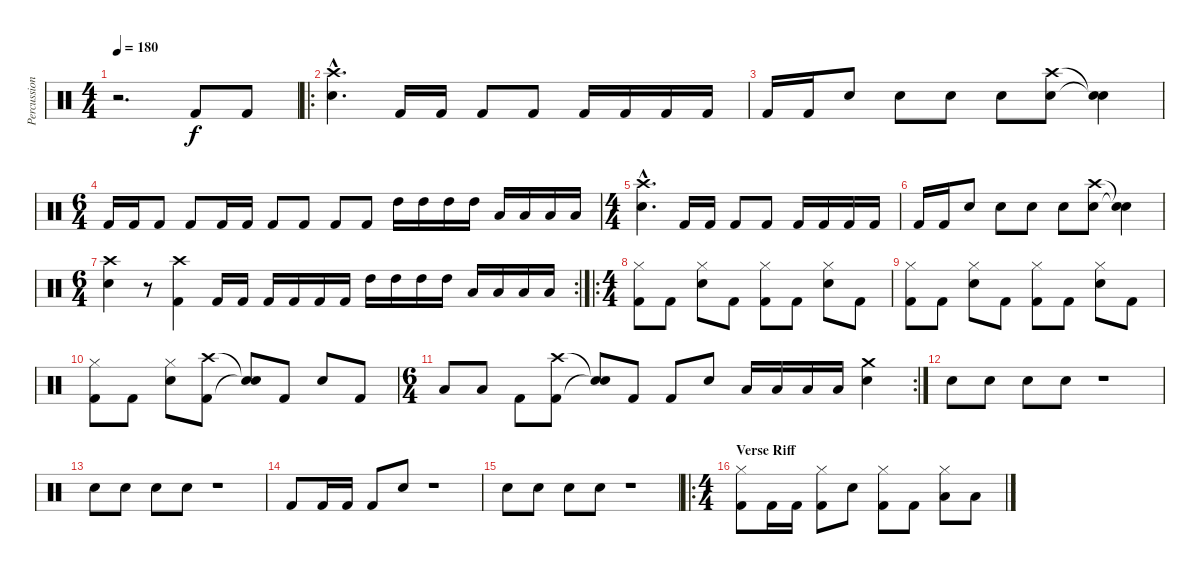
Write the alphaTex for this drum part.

\track ("Percussion" "Percussion") {instrument percussion}
\staff {score}
\articulation defaults
\ts (4 4)
\tempo 180
\clef neutral
\ks c
r.2{d dy f} "Kick (hit) 2".8 "Kick (hit) 2".8 |
\ro
("Crash high (hit)"{hac} "Snare (hit) 2"{hac}).4{d} "Kick (hit) 2".16 "Kick (hit) 2".16 "Kick (hit) 2".8 "Kick (hit) 2".8 "Kick (hit) 2".16 "Kick (hit) 2".16 "Kick (hit) 2".16 "Kick (hit) 2".16 |
"Kick (hit) 2".16 "Kick (hit) 2".16 "Snare (hit) 2".8 "Snare (hit) 2".8 "Snare (hit) 2".8 "Snare (hit) 2".8 ("Crash high (hit)" "Snare (hit) 2").8 ("Snare (hit)"{t} "Snare (hit)"{t}).4 |
\ts (6 4)
"Kick (hit) 2".16 "Kick (hit) 2".16 "Kick (hit) 2".8 "Kick (hit) 2".8 "Kick (hit) 2".16 "Kick (hit) 2".16 "Kick (hit) 2".8 "Kick (hit) 2".8 "Kick (hit) 2".8 "Kick (hit) 2".8 "High Tom (hit)".16 "High Tom (hit)".16 "High Tom (hit)".16 "High Tom (hit)".16 "Low Tom (hit)".16 "Low Tom (hit)".16 "Low Tom (hit)".16 "Low Tom (hit)".16 |
\ts (4 4)
("Crash high (hit)"{hac} "Snare (hit) 2"{hac}).4{d} "Kick (hit) 2".16 "Kick (hit) 2".16 "Kick (hit) 2".8 "Kick (hit) 2".8 "Kick (hit) 2".16 "Kick (hit) 2".16 "Kick (hit) 2".16 "Kick (hit) 2".16 |
"Kick (hit) 2".16 "Kick (hit) 2".16 "Snare (hit) 2".8 "Snare (hit) 2".8 "Snare (hit) 2".8 "Snare (hit) 2".8 ("Crash high (hit)" "Snare (hit) 2").8 ("Snare (hit)"{t} "Snare (hit)"{t}).4 |
\rc 2
\ts (6 4)
("Crash high (hit)" "Snare (hit) 2").4 r.8 ("Crash high (hit)" "Kick (hit) 2").4 "Kick (hit) 2".16 "Kick (hit) 2".16 "Kick (hit) 2".16 "Kick (hit) 2".16 "Kick (hit) 2".16 "Kick (hit) 2".16 "High Tom (hit)".16 "High Tom (hit)".16 "High Tom (hit)".16 "High Tom (hit)".16 "Low Tom (hit)".16 "Low Tom (hit)".16 "Low Tom (hit)".16 "Low Tom (hit)".16 |
\ro
\ts (4 4)
("Hi-Hat (closed)" "Kick (hit) 2").8 "Kick (hit) 2".8 ("Hi-Hat (closed)" "Snare (hit) 2").8 "Kick (hit) 2".8 ("Hi-Hat (closed)" "Kick (hit) 2").8 "Kick (hit) 2".8 ("Hi-Hat (closed)" "Snare (hit) 2").8 "Kick (hit) 2".8 |
("Hi-Hat (closed)" "Kick (hit) 2").8 "Kick (hit) 2".8 ("Hi-Hat (closed)" "Snare (hit) 2").8 "Kick (hit) 2".8 ("Hi-Hat (closed)" "Kick (hit) 2").8 "Kick (hit) 2".8 ("Hi-Hat (closed)" "Snare (hit) 2").8 "Kick (hit) 2".8 |
("Hi-Hat (closed)" "Kick (hit) 2").8 "Kick (hit) 2".8 ("Hi-Hat (closed)" "Snare (hit) 2").8 ("Crash high (hit)" "Kick (hit) 2").8 ("Snare (hit)"{t} "Snare (hit)"{t}).8 "Kick (hit) 2".8 "Snare (hit) 2".8 "Kick (hit) 2".8 |
\rc 2
\ts (6 4)
"Low Tom (hit)".8 "Low Tom (hit)".8 "Kick (hit) 2".8 ("Crash high (hit)" "Kick (hit) 2").8 ("Snare (hit)"{t} "Snare (hit)"{t}).8 "Kick (hit) 2".8 "Kick (hit) 2".8 "Snare (hit) 2".8 "Low Tom (hit)".16 "Low Tom (hit)".16 "Low Tom (hit)".16 "Low Tom (hit)".16 ("Crash medium (hit)" "Snare (hit) 2").4 |
"Snare (hit) 2".8 "Snare (hit) 2".8 "Snare (hit) 2".8 "Snare (hit) 2".8 r.1 |
"Snare (hit) 2".8 "Snare (hit) 2".8 "Snare (hit) 2".8 "Snare (hit) 2".8 r.1 |
"Kick (hit) 2".8 "Kick (hit) 2".16 "Kick (hit) 2".16 "Kick (hit) 2".8 "Snare (hit) 2".8 r.1 |
"Snare (hit) 2".8 "Snare (hit) 2".8 "Snare (hit) 2".8 "Snare (hit) 2".8 r.1 |
\ro
\ts (4 4)
\section ("" "Verse Riff")
("Hi-Hat (closed)" "Kick (hit) 2").8 "Kick (hit) 2".16 "Kick (hit) 2".16 ("Hi-Hat (closed)" "Kick (hit) 2").8 "Snare (hit) 2".8 ("Hi-Hat (closed)" "Kick (hit) 2").8 "Kick (hit) 2".8 ("Hi-Hat (closed)" "Low Tom (hit)").8 "Low Tom (hit)".8
